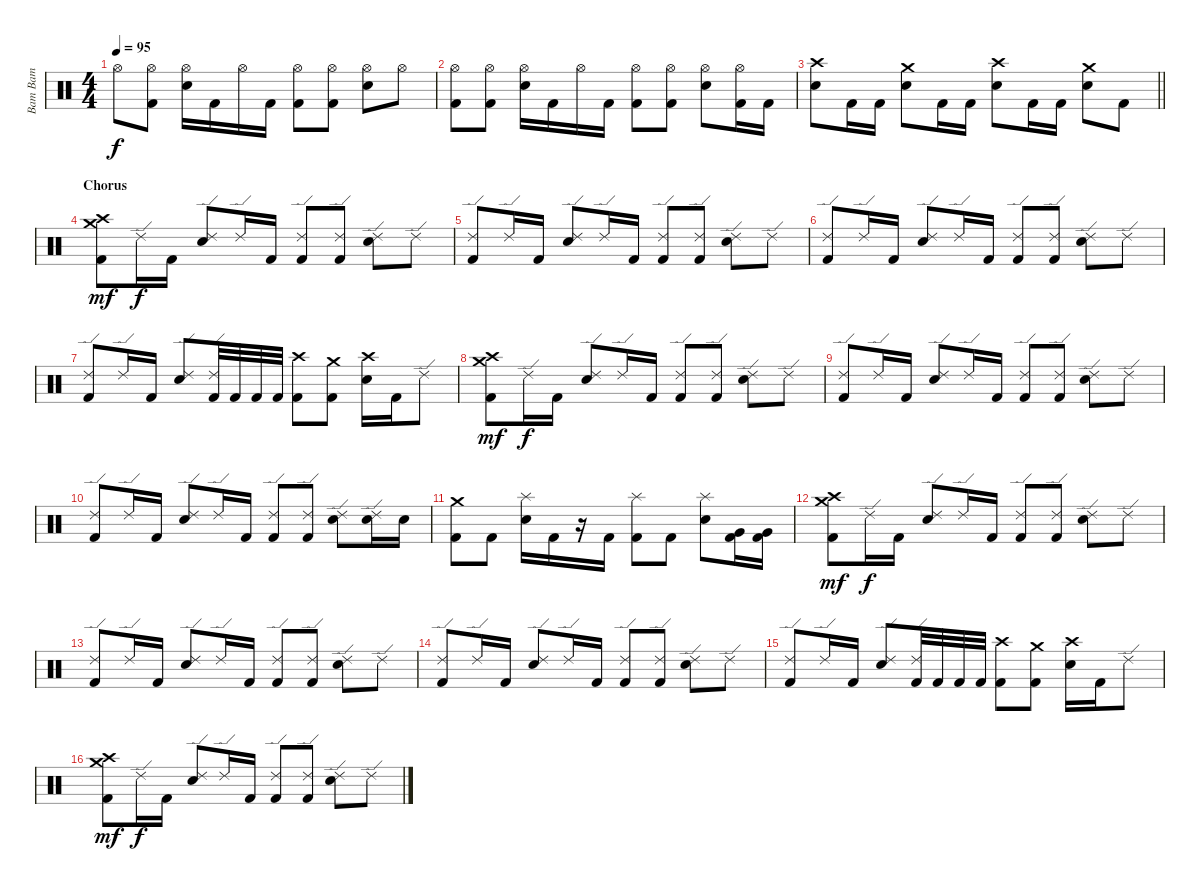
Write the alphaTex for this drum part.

\track ("Bam Bam" "Bam Bam") {instrument percussion}
\staff {score}
\articulation defaults
\ts (4 4)
\tempo 95
\clef neutral
\ks c "Hi-Hat (open)".8{dy f}
("Hi-Hat (open)" "Kick (hit) 2").8 ("Hi-Hat (open)" "Electric Snare (hit)").16 "Kick (hit) 2".16 "Hi-Hat (open)".16 "Kick (hit) 2".16 ("Hi-Hat (open)" "Kick (hit) 2").8 ("Hi-Hat (open)" "Kick (hit) 2").8 ("Hi-Hat (open)" "Electric Snare (hit)").8 "Hi-Hat (open)".8 |
("Hi-Hat (open)" "Kick (hit) 2").8 ("Hi-Hat (open)" "Kick (hit) 2").8 ("Hi-Hat (open)" "Electric Snare (hit)").16 "Kick (hit) 2".16 "Hi-Hat (open)".16 "Kick (hit) 2".16 ("Hi-Hat (open)" "Kick (hit) 2").8 ("Hi-Hat (open)" "Kick (hit) 2").8 ("Hi-Hat (open)" "Electric Snare (hit)").8 ("Hi-Hat (open)" "Kick (hit) 2").16 "Kick (hit) 2".16 |
\barLineRight lightlight
("Crash high (hit)" "Electric Snare (hit)").8 "Kick (hit) 2".16 "Kick (hit) 2".16 ("Crash medium (hit)" "Electric Snare (hit)").8 "Kick (hit) 2".16 "Kick (hit) 2".16 ("Crash high (hit)" "Electric Snare (hit)").8 "Kick (hit) 2".16 "Kick (hit) 2".16 ("Crash medium (hit)" "Electric Snare (hit)").8 "Kick (hit) 2".8 |
\section ("" "Chorus")
("Crash medium (hit)" "Crash high (hit)" "Kick (hit) 2").8{dy mf} "Ride (edge) 2".16{dy f} "Kick (hit) 2".16 ("Ride (edge) 2" "Electric Snare (hit)").8 "Ride (edge) 2".16 "Kick (hit) 2".16 ("Ride (edge) 2" "Kick (hit) 2").8 ("Ride (edge) 2" "Kick (hit) 2").8 ("Ride (edge) 2" "Electric Snare (hit)").8 "Ride (edge) 2".8 |
("Ride (edge) 2" "Kick (hit) 2").8 "Ride (edge) 2".16 "Kick (hit) 2".16 ("Ride (edge) 2" "Electric Snare (hit)").8 "Ride (edge) 2".16 "Kick (hit) 2".16 ("Ride (edge) 2" "Kick (hit) 2").8 ("Ride (edge) 2" "Kick (hit) 2").8 ("Ride (edge) 2" "Electric Snare (hit)").8 "Ride (edge) 2".8 |
("Ride (edge) 2" "Kick (hit) 2").8 "Ride (edge) 2".16 "Kick (hit) 2".16 ("Ride (edge) 2" "Electric Snare (hit)").8 "Ride (edge) 2".16 "Kick (hit) 2".16 ("Ride (edge) 2" "Kick (hit) 2").8 ("Ride (edge) 2" "Kick (hit) 2").8 ("Ride (edge) 2" "Electric Snare (hit)").8 "Ride (edge) 2".8 |
("Ride (edge) 2" "Kick (hit) 2").8 "Ride (edge) 2".16 "Kick (hit) 2".16 ("Ride (edge) 2" "Electric Snare (hit)").8 ("Ride (edge) 2" "Kick (hit) 2").32 "Kick (hit) 2".32 "Kick (hit) 2".32 "Kick (hit) 2".32 ("Crash high (hit)" "Kick (hit) 2").8 ("Crash medium (hit)" "Kick (hit) 2").8 ("Crash high (hit)" "Electric Snare (hit)").16 "Kick (hit) 2".16 "Ride (edge) 2".8 |
("Crash medium (hit)" "Crash high (hit)" "Kick (hit) 2").8{dy mf} "Ride (edge) 2".16{dy f} "Kick (hit) 2".16 ("Ride (edge) 2" "Electric Snare (hit)").8 "Ride (edge) 2".16 "Kick (hit) 2".16 ("Ride (edge) 2" "Kick (hit) 2").8 ("Ride (edge) 2" "Kick (hit) 2").8 ("Ride (edge) 2" "Electric Snare (hit)").8 "Ride (edge) 2".8 |
("Ride (edge) 2" "Kick (hit) 2").8 "Ride (edge) 2".16 "Kick (hit) 2".16 ("Ride (edge) 2" "Electric Snare (hit)").8 "Ride (edge) 2".16 "Kick (hit) 2".16 ("Ride (edge) 2" "Kick (hit) 2").8 ("Ride (edge) 2" "Kick (hit) 2").8 ("Ride (edge) 2" "Electric Snare (hit)").8 "Ride (edge) 2".8 |
("Ride (edge) 2" "Kick (hit) 2").8 "Ride (edge) 2".16 "Kick (hit) 2".16 ("Ride (edge) 2" "Electric Snare (hit)").8 "Ride (edge) 2".16 "Kick (hit) 2".16 ("Ride (edge) 2" "Kick (hit) 2").8 ("Ride (edge) 2" "Kick (hit) 2").8 ("Ride (edge) 2" "Electric Snare (hit)").8 ("Ride (edge) 2" "Electric Snare (hit)").16 "Electric Snare (hit)".16 |
("Crash medium (hit)" "Kick (hit) 2").8 "Kick (hit) 2".8 ("Splash (hit)" "Electric Snare (hit)").16 "Kick (hit) 2".16 r.16 "Kick (hit) 2".16 ("Splash (hit)" "Kick (hit) 2").8 "Kick (hit) 2".8 ("Splash (hit)" "Electric Snare (hit)").8 ("Very Low Tom (hit)" "Kick (hit) 2").16 ("Very Low Tom (hit)" "Kick (hit) 2").16 |
("Crash medium (hit)" "Crash high (hit)" "Kick (hit) 2").8{dy mf} "Ride (edge) 2".16{dy f} "Kick (hit) 2".16 ("Ride (edge) 2" "Electric Snare (hit)").8 "Ride (edge) 2".16 "Kick (hit) 2".16 ("Ride (edge) 2" "Kick (hit) 2").8 ("Ride (edge) 2" "Kick (hit) 2").8 ("Ride (edge) 2" "Electric Snare (hit)").8 "Ride (edge) 2".8 |
("Ride (edge) 2" "Kick (hit) 2").8 "Ride (edge) 2".16 "Kick (hit) 2".16 ("Ride (edge) 2" "Electric Snare (hit)").8 "Ride (edge) 2".16 "Kick (hit) 2".16 ("Ride (edge) 2" "Kick (hit) 2").8 ("Ride (edge) 2" "Kick (hit) 2").8 ("Ride (edge) 2" "Electric Snare (hit)").8 "Ride (edge) 2".8 |
("Ride (edge) 2" "Kick (hit) 2").8 "Ride (edge) 2".16 "Kick (hit) 2".16 ("Ride (edge) 2" "Electric Snare (hit)").8 "Ride (edge) 2".16 "Kick (hit) 2".16 ("Ride (edge) 2" "Kick (hit) 2").8 ("Ride (edge) 2" "Kick (hit) 2").8 ("Ride (edge) 2" "Electric Snare (hit)").8 "Ride (edge) 2".8 |
("Ride (edge) 2" "Kick (hit) 2").8 "Ride (edge) 2".16 "Kick (hit) 2".16 ("Ride (edge) 2" "Electric Snare (hit)").8 ("Ride (edge) 2" "Kick (hit) 2").32 "Kick (hit) 2".32 "Kick (hit) 2".32 "Kick (hit) 2".32 ("Crash high (hit)" "Kick (hit) 2").8 ("Crash medium (hit)" "Kick (hit) 2").8 ("Crash high (hit)" "Electric Snare (hit)").16 "Kick (hit) 2".16 "Ride (edge) 2".8 |
("Crash medium (hit)" "Crash high (hit)" "Kick (hit) 2").8{dy mf} "Ride (edge) 2".16{dy f} "Kick (hit) 2".16 ("Ride (edge) 2" "Electric Snare (hit)").8 "Ride (edge) 2".16 "Kick (hit) 2".16 ("Ride (edge) 2" "Kick (hit) 2").8 ("Ride (edge) 2" "Kick (hit) 2").8 ("Ride (edge) 2" "Electric Snare (hit)").8 "Ride (edge) 2".8
